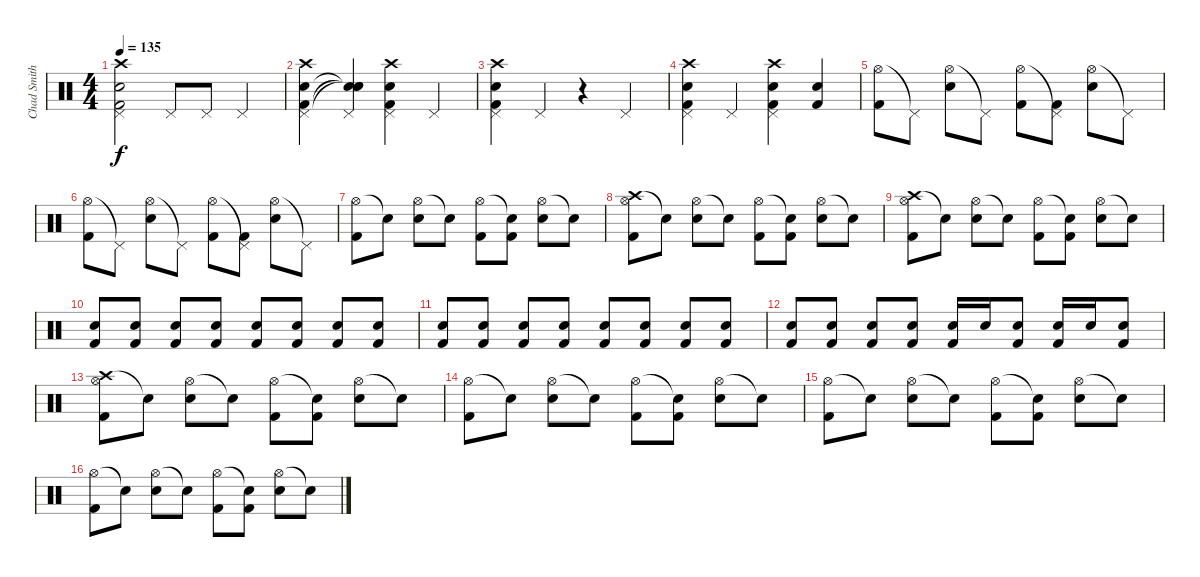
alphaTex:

\track ("Chad Smith" "Chad Smith") {instrument percussion}
\staff {score}
\articulation defaults
\ts (4 4)
\tempo 135
\clef neutral
\ks c
("Crash high (hit)" "Pedal Hi-Hat (hit)" "Electric Snare (hit)" "Kick (hit) 2").2{dy f} "Pedal Hi-Hat (hit)".8 "Pedal Hi-Hat (hit)".8 "Pedal Hi-Hat (hit)".4 |
("Crash high (hit)" "Pedal Hi-Hat (hit)" "Electric Snare (hit)" "Kick (hit) 2").4 ("Pedal Hi-Hat (hit)" "Snare (hit)"{t} "Snare (hit)"{t} "Snare (hit)"{t}).4 ("Crash high (hit)" "Pedal Hi-Hat (hit)" "Electric Snare (hit)" "Kick (hit) 2").4 "Pedal Hi-Hat (hit)".4 |
("Crash high (hit)" "Pedal Hi-Hat (hit)" "Electric Snare (hit)" "Kick (hit) 2").4 "Pedal Hi-Hat (hit)".4 r.4 "Pedal Hi-Hat (hit)".4 |
("Crash high (hit)" "Pedal Hi-Hat (hit)" "Electric Snare (hit)" "Kick (hit) 2").4 "Pedal Hi-Hat (hit)".4 ("Crash high (hit)" "Pedal Hi-Hat (hit)" "Electric Snare (hit)" "Kick (hit) 2").4 ("Electric Snare (hit)" "Kick (hit) 2").4 |
("Hi-Hat (open)" "Kick (hit) 2").8 "Pedal Hi-Hat (hit)"{t}.8 ("Hi-Hat (open)" "Electric Snare (hit)").8 "Pedal Hi-Hat (hit)"{t}.8 ("Hi-Hat (open)" "Kick (hit) 2").8 ("Pedal Hi-Hat (hit)"{t} "Kick (hit) 2").8 ("Hi-Hat (open)" "Electric Snare (hit)").8 "Pedal Hi-Hat (hit)"{t}.8 |
("Hi-Hat (open)" "Kick (hit) 2").8 "Pedal Hi-Hat (hit)"{t}.8 ("Hi-Hat (open)" "Electric Snare (hit)").8 "Pedal Hi-Hat (hit)"{t}.8 ("Hi-Hat (open)" "Kick (hit) 2").8 ("Pedal Hi-Hat (hit)"{t} "Kick (hit) 2").8 ("Hi-Hat (open)" "Electric Snare (hit)").8 "Pedal Hi-Hat (hit)"{t}.8 |
("Hi-Hat (open)" "Kick (hit) 2").8 "Snare (hit)"{t}.8 ("Hi-Hat (open)" "Electric Snare (hit)").8 "Snare (hit)"{t}.8 ("Hi-Hat (open)" "Kick (hit) 2").8 ("Snare (hit)"{t} "Kick (hit) 2").8 ("Hi-Hat (open)" "Electric Snare (hit)").8 "Snare (hit)"{t}.8 |
("Crash high (hit)" "Hi-Hat (open)" "Kick (hit) 2").8 "Snare (hit)"{t}.8 ("Hi-Hat (open)" "Electric Snare (hit)").8 "Snare (hit)"{t}.8 ("Hi-Hat (open)" "Kick (hit) 2").8 ("Snare (hit)"{t} "Kick (hit) 2").8 ("Hi-Hat (open)" "Electric Snare (hit)").8 "Snare (hit)"{t}.8 |
("Crash high (hit)" "Hi-Hat (open)" "Kick (hit) 2").8 "Snare (hit)"{t}.8 ("Hi-Hat (open)" "Electric Snare (hit)").8 "Snare (hit)"{t}.8 ("Hi-Hat (open)" "Kick (hit) 2").8 ("Snare (hit)"{t} "Kick (hit) 2").8 ("Hi-Hat (open)" "Electric Snare (hit)").8 "Snare (hit)"{t}.8 |
("Electric Snare (hit)" "Kick (hit) 2").8 ("Electric Snare (hit)" "Kick (hit) 2").8 ("Electric Snare (hit)" "Kick (hit) 2").8 ("Electric Snare (hit)" "Kick (hit) 2").8 ("Electric Snare (hit)" "Kick (hit) 2").8 ("Electric Snare (hit)" "Kick (hit) 2").8 ("Electric Snare (hit)" "Kick (hit) 2").8 ("Electric Snare (hit)" "Kick (hit) 2").8 |
("Electric Snare (hit)" "Kick (hit) 2").8 ("Electric Snare (hit)" "Kick (hit) 2").8 ("Electric Snare (hit)" "Kick (hit) 2").8 ("Electric Snare (hit)" "Kick (hit) 2").8 ("Electric Snare (hit)" "Kick (hit) 2").8 ("Electric Snare (hit)" "Kick (hit) 2").8 ("Electric Snare (hit)" "Kick (hit) 2").8 ("Electric Snare (hit)" "Kick (hit) 2").8 |
("Electric Snare (hit)" "Kick (hit) 2").8 ("Electric Snare (hit)" "Kick (hit) 2").8 ("Electric Snare (hit)" "Kick (hit) 2").8 ("Electric Snare (hit)" "Kick (hit) 2").8 ("Electric Snare (hit)" "Kick (hit) 2").16 "Electric Snare (hit)".16 ("Electric Snare (hit)" "Kick (hit) 2").8 ("Electric Snare (hit)" "Kick (hit) 2").16 "Electric Snare (hit)".16 ("Electric Snare (hit)" "Kick (hit) 2").8 |
("Crash high (hit)" "Hi-Hat (open)" "Kick (hit) 2").8 "Snare (hit)"{t}.8 ("Hi-Hat (open)" "Electric Snare (hit)").8 "Snare (hit)"{t}.8 ("Hi-Hat (open)" "Kick (hit) 2").8 ("Snare (hit)"{t} "Kick (hit) 2").8 ("Hi-Hat (open)" "Electric Snare (hit)").8 "Snare (hit)"{t}.8 |
("Hi-Hat (open)" "Kick (hit) 2").8 "Snare (hit)"{t}.8 ("Hi-Hat (open)" "Electric Snare (hit)").8 "Snare (hit)"{t}.8 ("Hi-Hat (open)" "Kick (hit) 2").8 ("Snare (hit)"{t} "Kick (hit) 2").8 ("Hi-Hat (open)" "Electric Snare (hit)").8 "Snare (hit)"{t}.8 |
("Hi-Hat (open)" "Kick (hit) 2").8 "Snare (hit)"{t}.8 ("Hi-Hat (open)" "Electric Snare (hit)").8 "Snare (hit)"{t}.8 ("Hi-Hat (open)" "Kick (hit) 2").8 ("Snare (hit)"{t} "Kick (hit) 2").8 ("Hi-Hat (open)" "Electric Snare (hit)").8 "Snare (hit)"{t}.8 |
("Hi-Hat (open)" "Kick (hit) 2").8 "Snare (hit)"{t}.8 ("Hi-Hat (open)" "Electric Snare (hit)").8 "Snare (hit)"{t}.8 ("Hi-Hat (open)" "Kick (hit) 2").8 ("Snare (hit)"{t} "Kick (hit) 2").8 ("Hi-Hat (open)" "Electric Snare (hit)").8 "Snare (hit)"{t}.8
